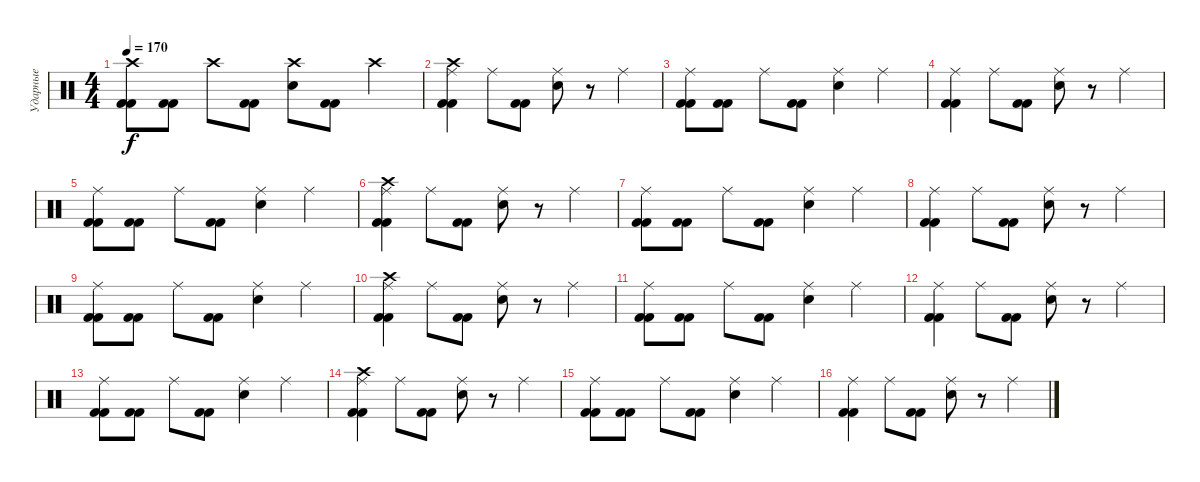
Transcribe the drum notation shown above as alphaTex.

\track ("Ударные" "Ударные") {instrument percussion}
\staff {score}
\articulation defaults
\ts (4 4)
\tempo 170
\clef neutral
\ks c
("Crash high (hit)" "Kick (hit) 2" "Kick (hit) 2").8{dy f} ("Kick (hit) 2" "Kick (hit) 2").8 "Crash high (hit)".8 ("Kick (hit) 2" "Kick (hit) 2").8 ("Crash high (hit)" "Electric Snare (hit)").8 ("Kick (hit) 2" "Kick (hit) 2").8 "Crash high (hit)".4 |
("Crash high (hit)" "Ride (middle)" "Kick (hit) 2" "Kick (hit) 2").4 "Ride (middle)".8 ("Kick (hit) 2" "Kick (hit) 2").8 ("Ride (middle)" "Electric Snare (hit)").8 r.8 "Ride (middle)".4 |
("Ride (middle)" "Kick (hit) 2" "Kick (hit) 2").8 ("Kick (hit) 2" "Kick (hit) 2").8 "Ride (middle)".8 ("Kick (hit) 2" "Kick (hit) 2").8 ("Ride (middle)" "Electric Snare (hit)").4 "Ride (middle)".4 |
("Ride (middle)" "Kick (hit) 2" "Kick (hit) 2").4 "Ride (middle)".8 ("Kick (hit) 2" "Kick (hit) 2").8 ("Ride (middle)" "Electric Snare (hit)").8 r.8 "Ride (middle)".4 |
("Ride (middle)" "Kick (hit) 2" "Kick (hit) 2").8 ("Kick (hit) 2" "Kick (hit) 2").8 "Ride (middle)".8 ("Kick (hit) 2" "Kick (hit) 2").8 ("Ride (middle)" "Electric Snare (hit)").4 "Ride (middle)".4 |
("Crash high (hit)" "Ride (middle)" "Kick (hit) 2" "Kick (hit) 2").4 "Ride (middle)".8 ("Kick (hit) 2" "Kick (hit) 2").8 ("Ride (middle)" "Electric Snare (hit)").8 r.8 "Ride (middle)".4 |
("Ride (middle)" "Kick (hit) 2" "Kick (hit) 2").8 ("Kick (hit) 2" "Kick (hit) 2").8 "Ride (middle)".8 ("Kick (hit) 2" "Kick (hit) 2").8 ("Ride (middle)" "Electric Snare (hit)").4 "Ride (middle)".4 |
("Ride (middle)" "Kick (hit) 2" "Kick (hit) 2").4 "Ride (middle)".8 ("Kick (hit) 2" "Kick (hit) 2").8 ("Ride (middle)" "Electric Snare (hit)").8 r.8 "Ride (middle)".4 |
("Ride (middle)" "Kick (hit) 2" "Kick (hit) 2").8 ("Kick (hit) 2" "Kick (hit) 2").8 "Ride (middle)".8 ("Kick (hit) 2" "Kick (hit) 2").8 ("Ride (middle)" "Electric Snare (hit)").4 "Ride (middle)".4 |
("Crash high (hit)" "Ride (middle)" "Kick (hit) 2" "Kick (hit) 2").4 "Ride (middle)".8 ("Kick (hit) 2" "Kick (hit) 2").8 ("Ride (middle)" "Electric Snare (hit)").8 r.8 "Ride (middle)".4 |
("Ride (middle)" "Kick (hit) 2" "Kick (hit) 2").8 ("Kick (hit) 2" "Kick (hit) 2").8 "Ride (middle)".8 ("Kick (hit) 2" "Kick (hit) 2").8 ("Ride (middle)" "Electric Snare (hit)").4 "Ride (middle)".4 |
("Ride (middle)" "Kick (hit) 2" "Kick (hit) 2").4 "Ride (middle)".8 ("Kick (hit) 2" "Kick (hit) 2").8 ("Ride (middle)" "Electric Snare (hit)").8 r.8 "Ride (middle)".4 |
("Ride (middle)" "Kick (hit) 2" "Kick (hit) 2").8 ("Kick (hit) 2" "Kick (hit) 2").8 "Ride (middle)".8 ("Kick (hit) 2" "Kick (hit) 2").8 ("Ride (middle)" "Electric Snare (hit)").4 "Ride (middle)".4 |
("Crash high (hit)" "Ride (middle)" "Kick (hit) 2" "Kick (hit) 2").4 "Ride (middle)".8 ("Kick (hit) 2" "Kick (hit) 2").8 ("Ride (middle)" "Electric Snare (hit)").8 r.8 "Ride (middle)".4 |
("Ride (middle)" "Kick (hit) 2" "Kick (hit) 2").8 ("Kick (hit) 2" "Kick (hit) 2").8 "Ride (middle)".8 ("Kick (hit) 2" "Kick (hit) 2").8 ("Ride (middle)" "Electric Snare (hit)").4 "Ride (middle)".4 |
("Ride (middle)" "Kick (hit) 2" "Kick (hit) 2").4 "Ride (middle)".8 ("Kick (hit) 2" "Kick (hit) 2").8 ("Ride (middle)" "Electric Snare (hit)").8 r.8 "Ride (middle)".4
